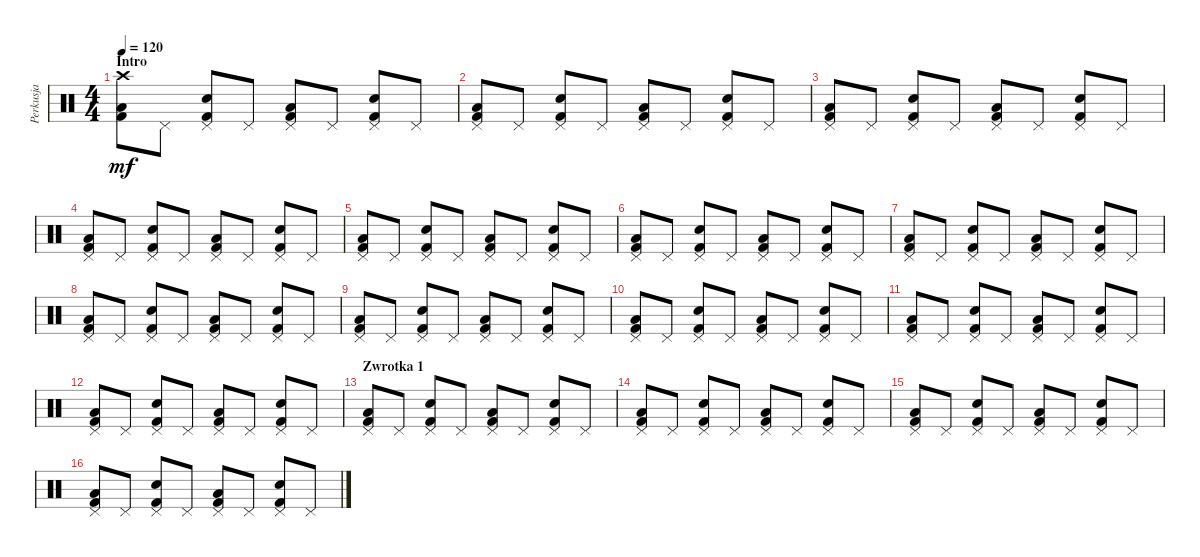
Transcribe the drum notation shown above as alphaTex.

\track ("Perkusja" "Perkusja") {instrument percussion}
\staff {score}
\articulation defaults
\ts (4 4)
\section ("" "Intro")
\tempo 120
\clef neutral
\ks c
("Crash high (hit)" "Low Floor Tom (hit)" "Kick (hit) 2").8{dy mf} "Pedal Hi-Hat (hit)".8 ("Pedal Hi-Hat (hit)" "Electric Snare (hit)" "Kick (hit) 2").8 "Pedal Hi-Hat (hit)".8 ("Pedal Hi-Hat (hit)" "Low Floor Tom (hit)" "Kick (hit) 2").8 "Pedal Hi-Hat (hit)".8 ("Pedal Hi-Hat (hit)" "Electric Snare (hit)" "Kick (hit) 2").8 "Pedal Hi-Hat (hit)".8 |
("Pedal Hi-Hat (hit)" "Low Floor Tom (hit)" "Kick (hit) 2").8 "Pedal Hi-Hat (hit)".8 ("Pedal Hi-Hat (hit)" "Electric Snare (hit)" "Kick (hit) 2").8 "Pedal Hi-Hat (hit)".8 ("Pedal Hi-Hat (hit)" "Low Floor Tom (hit)" "Kick (hit) 2").8 "Pedal Hi-Hat (hit)".8 ("Pedal Hi-Hat (hit)" "Electric Snare (hit)" "Kick (hit) 2").8 "Pedal Hi-Hat (hit)".8 |
("Pedal Hi-Hat (hit)" "Low Floor Tom (hit)" "Kick (hit) 2").8 "Pedal Hi-Hat (hit)".8 ("Pedal Hi-Hat (hit)" "Electric Snare (hit)" "Kick (hit) 2").8 "Pedal Hi-Hat (hit)".8 ("Pedal Hi-Hat (hit)" "Low Floor Tom (hit)" "Kick (hit) 2").8 "Pedal Hi-Hat (hit)".8 ("Pedal Hi-Hat (hit)" "Electric Snare (hit)" "Kick (hit) 2").8 "Pedal Hi-Hat (hit)".8 |
("Pedal Hi-Hat (hit)" "Low Floor Tom (hit)" "Kick (hit) 2").8 "Pedal Hi-Hat (hit)".8 ("Pedal Hi-Hat (hit)" "Electric Snare (hit)" "Kick (hit) 2").8 "Pedal Hi-Hat (hit)".8 ("Pedal Hi-Hat (hit)" "Low Floor Tom (hit)" "Kick (hit) 2").8 "Pedal Hi-Hat (hit)".8 ("Pedal Hi-Hat (hit)" "Electric Snare (hit)" "Kick (hit) 2").8 "Pedal Hi-Hat (hit)".8 |
("Pedal Hi-Hat (hit)" "Low Floor Tom (hit)" "Kick (hit) 2").8 "Pedal Hi-Hat (hit)".8 ("Pedal Hi-Hat (hit)" "Electric Snare (hit)" "Kick (hit) 2").8 "Pedal Hi-Hat (hit)".8 ("Pedal Hi-Hat (hit)" "Low Floor Tom (hit)" "Kick (hit) 2").8 "Pedal Hi-Hat (hit)".8 ("Pedal Hi-Hat (hit)" "Electric Snare (hit)" "Kick (hit) 2").8 "Pedal Hi-Hat (hit)".8 |
("Pedal Hi-Hat (hit)" "Low Floor Tom (hit)" "Kick (hit) 2").8 "Pedal Hi-Hat (hit)".8 ("Pedal Hi-Hat (hit)" "Electric Snare (hit)" "Kick (hit) 2").8 "Pedal Hi-Hat (hit)".8 ("Pedal Hi-Hat (hit)" "Low Floor Tom (hit)" "Kick (hit) 2").8 "Pedal Hi-Hat (hit)".8 ("Pedal Hi-Hat (hit)" "Electric Snare (hit)" "Kick (hit) 2").8 "Pedal Hi-Hat (hit)".8 |
("Pedal Hi-Hat (hit)" "Low Floor Tom (hit)" "Kick (hit) 2").8 "Pedal Hi-Hat (hit)".8 ("Pedal Hi-Hat (hit)" "Electric Snare (hit)" "Kick (hit) 2").8 "Pedal Hi-Hat (hit)".8 ("Pedal Hi-Hat (hit)" "Low Floor Tom (hit)" "Kick (hit) 2").8 "Pedal Hi-Hat (hit)".8 ("Pedal Hi-Hat (hit)" "Electric Snare (hit)" "Kick (hit) 2").8 "Pedal Hi-Hat (hit)".8 |
("Pedal Hi-Hat (hit)" "Low Floor Tom (hit)" "Kick (hit) 2").8 "Pedal Hi-Hat (hit)".8 ("Pedal Hi-Hat (hit)" "Electric Snare (hit)" "Kick (hit) 2").8 "Pedal Hi-Hat (hit)".8 ("Pedal Hi-Hat (hit)" "Low Floor Tom (hit)" "Kick (hit) 2").8 "Pedal Hi-Hat (hit)".8 ("Pedal Hi-Hat (hit)" "Electric Snare (hit)" "Kick (hit) 2").8 "Pedal Hi-Hat (hit)".8 |
("Pedal Hi-Hat (hit)" "Low Floor Tom (hit)" "Kick (hit) 2").8 "Pedal Hi-Hat (hit)".8 ("Pedal Hi-Hat (hit)" "Electric Snare (hit)" "Kick (hit) 2").8 "Pedal Hi-Hat (hit)".8 ("Pedal Hi-Hat (hit)" "Low Floor Tom (hit)" "Kick (hit) 2").8 "Pedal Hi-Hat (hit)".8 ("Pedal Hi-Hat (hit)" "Electric Snare (hit)" "Kick (hit) 2").8 "Pedal Hi-Hat (hit)".8 |
("Pedal Hi-Hat (hit)" "Low Floor Tom (hit)" "Kick (hit) 2").8 "Pedal Hi-Hat (hit)".8 ("Pedal Hi-Hat (hit)" "Electric Snare (hit)" "Kick (hit) 2").8 "Pedal Hi-Hat (hit)".8 ("Pedal Hi-Hat (hit)" "Low Floor Tom (hit)" "Kick (hit) 2").8 "Pedal Hi-Hat (hit)".8 ("Pedal Hi-Hat (hit)" "Electric Snare (hit)" "Kick (hit) 2").8 "Pedal Hi-Hat (hit)".8 |
("Pedal Hi-Hat (hit)" "Low Floor Tom (hit)" "Kick (hit) 2").8 "Pedal Hi-Hat (hit)".8 ("Pedal Hi-Hat (hit)" "Electric Snare (hit)" "Kick (hit) 2").8 "Pedal Hi-Hat (hit)".8 ("Pedal Hi-Hat (hit)" "Low Floor Tom (hit)" "Kick (hit) 2").8 "Pedal Hi-Hat (hit)".8 ("Pedal Hi-Hat (hit)" "Electric Snare (hit)" "Kick (hit) 2").8 "Pedal Hi-Hat (hit)".8 |
("Pedal Hi-Hat (hit)" "Low Floor Tom (hit)" "Kick (hit) 2").8 "Pedal Hi-Hat (hit)".8 ("Pedal Hi-Hat (hit)" "Electric Snare (hit)" "Kick (hit) 2").8 "Pedal Hi-Hat (hit)".8 ("Pedal Hi-Hat (hit)" "Low Floor Tom (hit)" "Kick (hit) 2").8 "Pedal Hi-Hat (hit)".8 ("Pedal Hi-Hat (hit)" "Electric Snare (hit)" "Kick (hit) 2").8 "Pedal Hi-Hat (hit)".8 |
\section ("" "Zwrotka 1")
("Pedal Hi-Hat (hit)" "Low Floor Tom (hit)" "Kick (hit) 2").8 "Pedal Hi-Hat (hit)".8 ("Pedal Hi-Hat (hit)" "Electric Snare (hit)" "Kick (hit) 2").8 "Pedal Hi-Hat (hit)".8 ("Pedal Hi-Hat (hit)" "Low Floor Tom (hit)" "Kick (hit) 2").8 "Pedal Hi-Hat (hit)".8 ("Pedal Hi-Hat (hit)" "Electric Snare (hit)" "Kick (hit) 2").8 "Pedal Hi-Hat (hit)".8 |
("Pedal Hi-Hat (hit)" "Low Floor Tom (hit)" "Kick (hit) 2").8 "Pedal Hi-Hat (hit)".8 ("Pedal Hi-Hat (hit)" "Electric Snare (hit)" "Kick (hit) 2").8 "Pedal Hi-Hat (hit)".8 ("Pedal Hi-Hat (hit)" "Low Floor Tom (hit)" "Kick (hit) 2").8 "Pedal Hi-Hat (hit)".8 ("Pedal Hi-Hat (hit)" "Electric Snare (hit)" "Kick (hit) 2").8 "Pedal Hi-Hat (hit)".8 |
("Pedal Hi-Hat (hit)" "Low Floor Tom (hit)" "Kick (hit) 2").8 "Pedal Hi-Hat (hit)".8 ("Pedal Hi-Hat (hit)" "Electric Snare (hit)" "Kick (hit) 2").8 "Pedal Hi-Hat (hit)".8 ("Pedal Hi-Hat (hit)" "Low Floor Tom (hit)" "Kick (hit) 2").8 "Pedal Hi-Hat (hit)".8 ("Pedal Hi-Hat (hit)" "Electric Snare (hit)" "Kick (hit) 2").8 "Pedal Hi-Hat (hit)".8 |
("Pedal Hi-Hat (hit)" "Low Floor Tom (hit)" "Kick (hit) 2").8 "Pedal Hi-Hat (hit)".8 ("Pedal Hi-Hat (hit)" "Electric Snare (hit)" "Kick (hit) 2").8 "Pedal Hi-Hat (hit)".8 ("Pedal Hi-Hat (hit)" "Low Floor Tom (hit)" "Kick (hit) 2").8 "Pedal Hi-Hat (hit)".8 ("Pedal Hi-Hat (hit)" "Electric Snare (hit)" "Kick (hit) 2").8 "Pedal Hi-Hat (hit)".8
